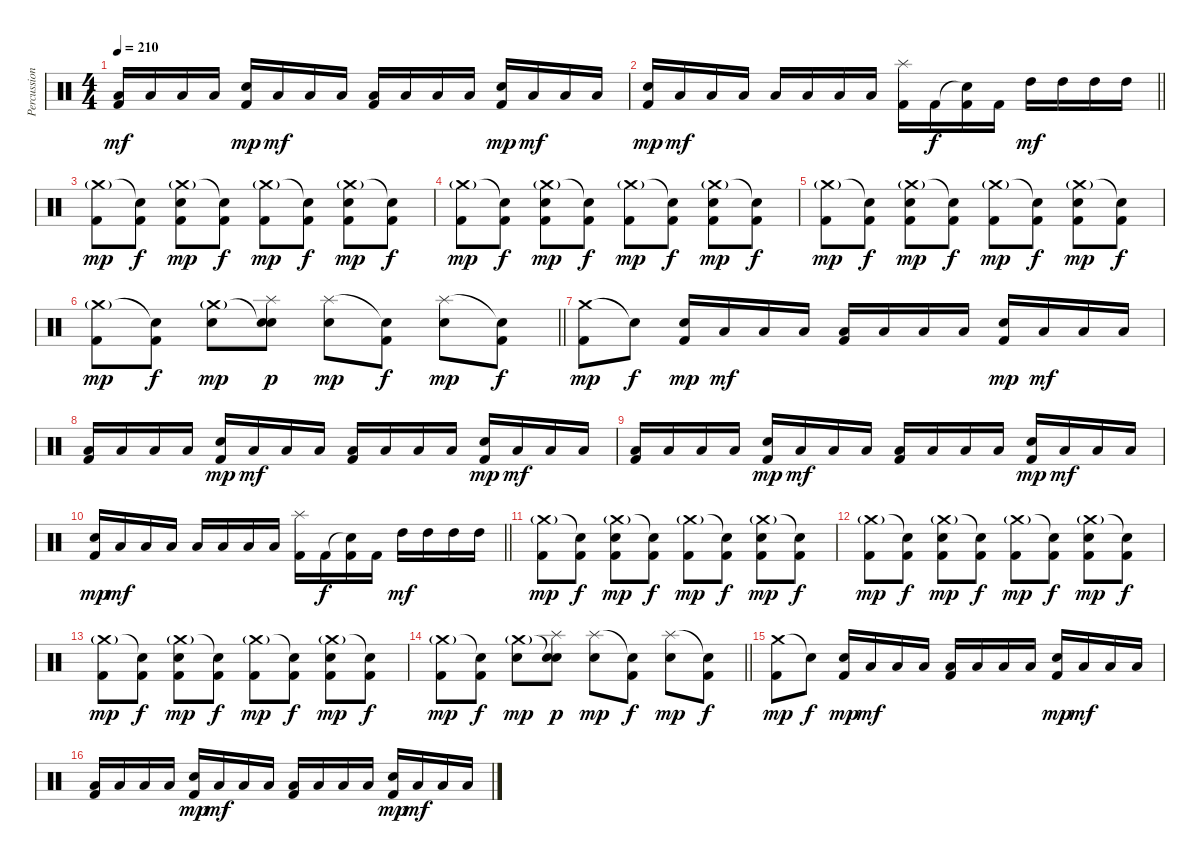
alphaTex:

\track ("Percussion" "Percussion") {instrument percussion}
\staff {score}
\articulation defaults
\ts (4 4)
\tempo 210
\clef neutral
\ks c
("Low Tom (hit)" "Kick (hit) 2").16{dy mf} "Low Tom (hit)".16 "Low Tom (hit)".16 "Low Tom (hit)".16 ("Electric Snare (hit)" "Kick (hit) 2").16{dy mp} "Low Tom (hit)".16{dy mf} "Low Tom (hit)".16 "Low Tom (hit)".16 ("Low Tom (hit)" "Kick (hit) 2").16 "Low Tom (hit)".16 "Low Tom (hit)".16 "Low Tom (hit)".16 ("Electric Snare (hit)" "Kick (hit) 2").16{dy mp} "Low Tom (hit)".16{dy mf} "Low Tom (hit)".16 "Low Tom (hit)".16 |
\barLineRight lightlight
("Electric Snare (hit)" "Kick (hit) 2").16{dy mp} "Low Tom (hit)".16{dy mf} "Low Tom (hit)".16 "Low Tom (hit)".16 "Low Tom (hit)".16 "Low Tom (hit)".16 "Low Tom (hit)".16 "Low Tom (hit)".16 ("Splash (hit)" "Kick (hit) 2").16 "Kick (hit) 2".16{dy f} ("Snare (hit)"{t} "Kick (hit) 2").16 "Kick (hit) 2".16 "High Tom (hit)".16{dy mf} "High Tom (hit)".16 "High Tom (hit)".16 "High Tom (hit)".16 |
("Crash medium (hit)"{g} "Kick (hit) 2").8{dy mp} ("Snare (hit)"{t} "Kick (hit) 2").8{dy f} ("Crash medium (hit)"{g} "Electric Snare (hit)" "Kick (hit) 2").8{dy mp} ("Snare (hit)"{t} "Kick (hit) 2").8{dy f} ("Crash medium (hit)"{g} "Kick (hit) 2").8{dy mp} ("Snare (hit)"{t} "Kick (hit) 2").8{dy f} ("Crash medium (hit)"{g} "Electric Snare (hit)" "Kick (hit) 2").8{dy mp} ("Snare (hit)"{t} "Kick (hit) 2").8{dy f} |
("Crash medium (hit)"{g} "Kick (hit) 2").8{dy mp} ("Snare (hit)"{t} "Kick (hit) 2").8{dy f} ("Crash medium (hit)"{g} "Electric Snare (hit)" "Kick (hit) 2").8{dy mp} ("Snare (hit)"{t} "Kick (hit) 2").8{dy f} ("Crash medium (hit)"{g} "Kick (hit) 2").8{dy mp} ("Snare (hit)"{t} "Kick (hit) 2").8{dy f} ("Crash medium (hit)"{g} "Electric Snare (hit)" "Kick (hit) 2").8{dy mp} ("Snare (hit)"{t} "Kick (hit) 2").8{dy f} |
("Crash medium (hit)"{g} "Kick (hit) 2").8{dy mp} ("Snare (hit)"{t} "Kick (hit) 2").8{dy f} ("Crash medium (hit)"{g} "Electric Snare (hit)" "Kick (hit) 2").8{dy mp} ("Snare (hit)"{t} "Kick (hit) 2").8{dy f} ("Crash medium (hit)"{g} "Kick (hit) 2").8{dy mp} ("Snare (hit)"{t} "Kick (hit) 2").8{dy f} ("Crash medium (hit)"{g} "Electric Snare (hit)" "Kick (hit) 2").8{dy mp} ("Snare (hit)"{t} "Kick (hit) 2").8{dy f} |
\barLineRight lightlight
("Crash medium (hit)"{g} "Kick (hit) 2").8{dy mp} ("Snare (hit)"{t} "Kick (hit) 2").8{dy f} ("Crash medium (hit)"{g} "Electric Snare (hit)").8{dy mp} ("Snare (hit)"{t} "Splash (hit)" "Electric Snare (hit)").8{dy p} ("Splash (hit)" "Electric Snare (hit)").8{dy mp} ("Snare (hit)"{t} "Kick (hit) 2").8{dy f} ("Splash (hit)" "Electric Snare (hit)").8{dy mp} ("Snare (hit)"{t} "Kick (hit) 2").8{dy f} |
("Crash medium (hit)" "Kick (hit) 2").8{dy mp} "Snare (hit)"{t}.8{dy f} ("Electric Snare (hit)" "Kick (hit) 2").16{dy mp} "Low Tom (hit)".16{dy mf} "Low Tom (hit)".16 "Low Tom (hit)".16 ("Low Tom (hit)" "Kick (hit) 2").16 "Low Tom (hit)".16 "Low Tom (hit)".16 "Low Tom (hit)".16 ("Electric Snare (hit)" "Kick (hit) 2").16{dy mp} "Low Tom (hit)".16{dy mf} "Low Tom (hit)".16 "Low Tom (hit)".16 |
("Low Tom (hit)" "Kick (hit) 2").16 "Low Tom (hit)".16 "Low Tom (hit)".16 "Low Tom (hit)".16 ("Electric Snare (hit)" "Kick (hit) 2").16{dy mp} "Low Tom (hit)".16{dy mf} "Low Tom (hit)".16 "Low Tom (hit)".16 ("Low Tom (hit)" "Kick (hit) 2").16 "Low Tom (hit)".16 "Low Tom (hit)".16 "Low Tom (hit)".16 ("Electric Snare (hit)" "Kick (hit) 2").16{dy mp} "Low Tom (hit)".16{dy mf} "Low Tom (hit)".16 "Low Tom (hit)".16 |
("Low Tom (hit)" "Kick (hit) 2").16 "Low Tom (hit)".16 "Low Tom (hit)".16 "Low Tom (hit)".16 ("Electric Snare (hit)" "Kick (hit) 2").16{dy mp} "Low Tom (hit)".16{dy mf} "Low Tom (hit)".16 "Low Tom (hit)".16 ("Low Tom (hit)" "Kick (hit) 2").16 "Low Tom (hit)".16 "Low Tom (hit)".16 "Low Tom (hit)".16 ("Electric Snare (hit)" "Kick (hit) 2").16{dy mp} "Low Tom (hit)".16{dy mf} "Low Tom (hit)".16 "Low Tom (hit)".16 |
\barLineRight lightlight
("Electric Snare (hit)" "Kick (hit) 2").16{dy mp} "Low Tom (hit)".16{dy mf} "Low Tom (hit)".16 "Low Tom (hit)".16 "Low Tom (hit)".16 "Low Tom (hit)".16 "Low Tom (hit)".16 "Low Tom (hit)".16 ("Splash (hit)" "Kick (hit) 2").16 "Kick (hit) 2".16{dy f} ("Snare (hit)"{t} "Kick (hit) 2").16 "Kick (hit) 2".16 "High Tom (hit)".16{dy mf} "High Tom (hit)".16 "High Tom (hit)".16 "High Tom (hit)".16 |
("Crash medium (hit)"{g} "Kick (hit) 2").8{dy mp} ("Snare (hit)"{t} "Kick (hit) 2").8{dy f} ("Crash medium (hit)"{g} "Electric Snare (hit)" "Kick (hit) 2").8{dy mp} ("Snare (hit)"{t} "Kick (hit) 2").8{dy f} ("Crash medium (hit)"{g} "Kick (hit) 2").8{dy mp} ("Snare (hit)"{t} "Kick (hit) 2").8{dy f} ("Crash medium (hit)"{g} "Electric Snare (hit)" "Kick (hit) 2").8{dy mp} ("Snare (hit)"{t} "Kick (hit) 2").8{dy f} |
("Crash medium (hit)"{g} "Kick (hit) 2").8{dy mp} ("Snare (hit)"{t} "Kick (hit) 2").8{dy f} ("Crash medium (hit)"{g} "Electric Snare (hit)" "Kick (hit) 2").8{dy mp} ("Snare (hit)"{t} "Kick (hit) 2").8{dy f} ("Crash medium (hit)"{g} "Kick (hit) 2").8{dy mp} ("Snare (hit)"{t} "Kick (hit) 2").8{dy f} ("Crash medium (hit)"{g} "Electric Snare (hit)" "Kick (hit) 2").8{dy mp} ("Snare (hit)"{t} "Kick (hit) 2").8{dy f} |
("Crash medium (hit)"{g} "Kick (hit) 2").8{dy mp} ("Snare (hit)"{t} "Kick (hit) 2").8{dy f} ("Crash medium (hit)"{g} "Electric Snare (hit)" "Kick (hit) 2").8{dy mp} ("Snare (hit)"{t} "Kick (hit) 2").8{dy f} ("Crash medium (hit)"{g} "Kick (hit) 2").8{dy mp} ("Snare (hit)"{t} "Kick (hit) 2").8{dy f} ("Crash medium (hit)"{g} "Electric Snare (hit)" "Kick (hit) 2").8{dy mp} ("Snare (hit)"{t} "Kick (hit) 2").8{dy f} |
\barLineRight lightlight
("Crash medium (hit)"{g} "Kick (hit) 2").8{dy mp} ("Snare (hit)"{t} "Kick (hit) 2").8{dy f} ("Crash medium (hit)"{g} "Electric Snare (hit)").8{dy mp} ("Snare (hit)"{t} "Splash (hit)" "Electric Snare (hit)").8{dy p} ("Splash (hit)" "Electric Snare (hit)").8{dy mp} ("Snare (hit)"{t} "Kick (hit) 2").8{dy f} ("Splash (hit)" "Electric Snare (hit)").8{dy mp} ("Snare (hit)"{t} "Kick (hit) 2").8{dy f} |
("Crash medium (hit)" "Kick (hit) 2").8{dy mp} "Snare (hit)"{t}.8{dy f} ("Electric Snare (hit)" "Kick (hit) 2").16{dy mp} "Low Tom (hit)".16{dy mf} "Low Tom (hit)".16 "Low Tom (hit)".16 ("Low Tom (hit)" "Kick (hit) 2").16 "Low Tom (hit)".16 "Low Tom (hit)".16 "Low Tom (hit)".16 ("Electric Snare (hit)" "Kick (hit) 2").16{dy mp} "Low Tom (hit)".16{dy mf} "Low Tom (hit)".16 "Low Tom (hit)".16 |
("Low Tom (hit)" "Kick (hit) 2").16 "Low Tom (hit)".16 "Low Tom (hit)".16 "Low Tom (hit)".16 ("Electric Snare (hit)" "Kick (hit) 2").16{dy mp} "Low Tom (hit)".16{dy mf} "Low Tom (hit)".16 "Low Tom (hit)".16 ("Low Tom (hit)" "Kick (hit) 2").16 "Low Tom (hit)".16 "Low Tom (hit)".16 "Low Tom (hit)".16 ("Electric Snare (hit)" "Kick (hit) 2").16{dy mp} "Low Tom (hit)".16{dy mf} "Low Tom (hit)".16 "Low Tom (hit)".16
